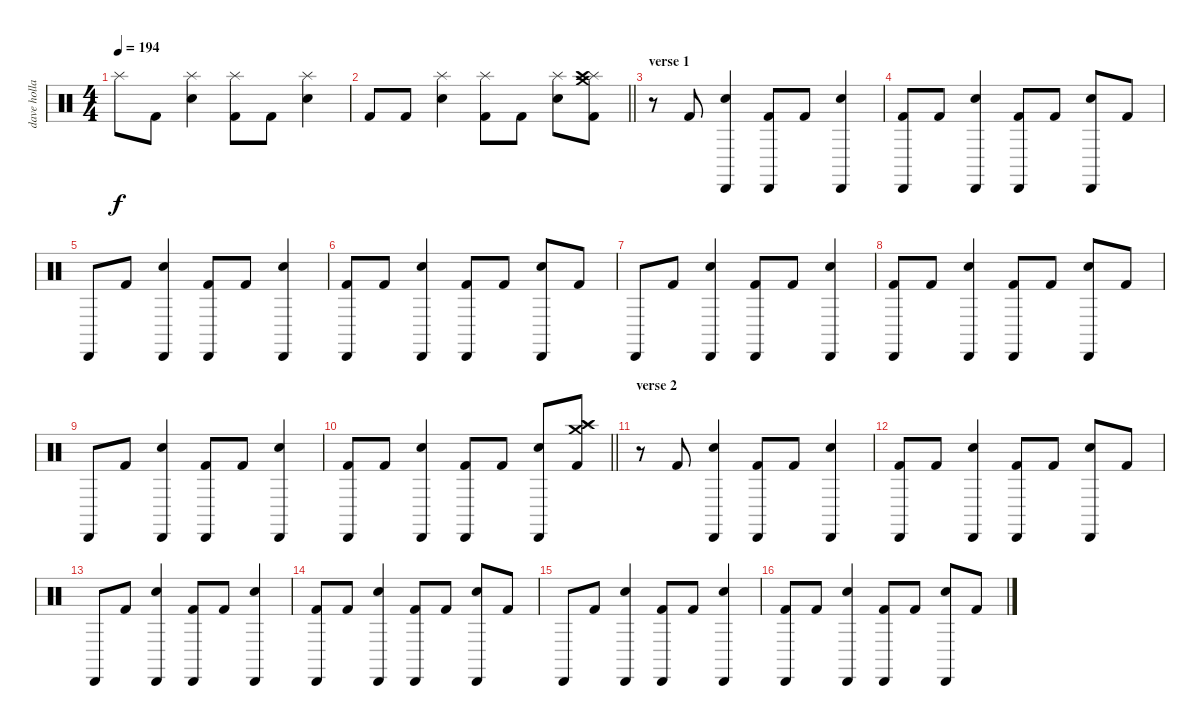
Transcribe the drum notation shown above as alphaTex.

\track ("dave holland" "dave holla") {instrument percussion}
\staff {score}
\articulation defaults
\ts (4 4)
\tempo 194
\clef neutral
\ks c "Splash (hit)".8{dy f} "Kick (hit) 2".8
("Splash (hit)" "Electric Snare (hit)").4 ("Splash (hit)" "Kick (hit) 2").8 "Kick (hit) 2".8 ("Splash (hit)" "Electric Snare (hit)").4 |
\barLineRight lightlight "Kick (hit) 2".8 "Kick (hit) 2".8
("Splash (hit)" "Electric Snare (hit)").4 ("Splash (hit)" "Kick (hit) 2").8 "Kick (hit) 2".8 ("Splash (hit)" "Electric Snare (hit)").8 ("Crash medium (hit)" "Splash (hit)" "Crash high (hit)" "Kick (hit) 2").8 |
\section ("" "verse 1")
r.8 "Kick (hit) 2".8 ("Cabasa (hit)" "Electric Snare (hit)").4 ("Cabasa (hit)" "Kick (hit) 2").8 "Kick (hit) 2".8 ("Cabasa (hit)" "Electric Snare (hit)").4 |
("Cabasa (hit)" "Kick (hit) 2").8 "Kick (hit) 2".8 ("Cabasa (hit)" "Electric Snare (hit)").4 ("Cabasa (hit)" "Kick (hit) 2").8 "Kick (hit) 2".8 ("Cabasa (hit)" "Electric Snare (hit)").8 "Kick (hit) 2".8 |
"Cabasa (hit)".8 "Kick (hit) 2".8 ("Cabasa (hit)" "Electric Snare (hit)").4 ("Cabasa (hit)" "Kick (hit) 2").8 "Kick (hit) 2".8 ("Cabasa (hit)" "Electric Snare (hit)").4 |
("Cabasa (hit)" "Kick (hit) 2").8 "Kick (hit) 2".8 ("Cabasa (hit)" "Electric Snare (hit)").4 ("Cabasa (hit)" "Kick (hit) 2").8 "Kick (hit) 2".8 ("Cabasa (hit)" "Electric Snare (hit)").8 "Kick (hit) 2".8 |
"Cabasa (hit)".8 "Kick (hit) 2".8 ("Cabasa (hit)" "Electric Snare (hit)").4 ("Cabasa (hit)" "Kick (hit) 2").8 "Kick (hit) 2".8 ("Cabasa (hit)" "Electric Snare (hit)").4 |
("Cabasa (hit)" "Kick (hit) 2").8 "Kick (hit) 2".8 ("Cabasa (hit)" "Electric Snare (hit)").4 ("Cabasa (hit)" "Kick (hit) 2").8 "Kick (hit) 2".8 ("Cabasa (hit)" "Electric Snare (hit)").8 "Kick (hit) 2".8 |
"Cabasa (hit)".8 "Kick (hit) 2".8 ("Cabasa (hit)" "Electric Snare (hit)").4 ("Cabasa (hit)" "Kick (hit) 2").8 "Kick (hit) 2".8 ("Cabasa (hit)" "Electric Snare (hit)").4 |
\barLineRight lightlight
("Cabasa (hit)" "Kick (hit) 2").8 "Kick (hit) 2".8 ("Cabasa (hit)" "Electric Snare (hit)").4 ("Cabasa (hit)" "Kick (hit) 2").8 "Kick (hit) 2".8 ("Cabasa (hit)" "Electric Snare (hit)").8 ("Crash medium (hit)" "Splash (hit)" "Crash high (hit)" "Kick (hit) 2").8 |
\section ("" "verse 2")
r.8 "Kick (hit) 2".8 ("Cabasa (hit)" "Electric Snare (hit)").4 ("Cabasa (hit)" "Kick (hit) 2").8 "Kick (hit) 2".8 ("Cabasa (hit)" "Electric Snare (hit)").4 |
("Cabasa (hit)" "Kick (hit) 2").8 "Kick (hit) 2".8 ("Cabasa (hit)" "Electric Snare (hit)").4 ("Cabasa (hit)" "Kick (hit) 2").8 "Kick (hit) 2".8 ("Cabasa (hit)" "Electric Snare (hit)").8 "Kick (hit) 2".8 |
"Cabasa (hit)".8 "Kick (hit) 2".8 ("Cabasa (hit)" "Electric Snare (hit)").4 ("Cabasa (hit)" "Kick (hit) 2").8 "Kick (hit) 2".8 ("Cabasa (hit)" "Electric Snare (hit)").4 |
("Cabasa (hit)" "Kick (hit) 2").8 "Kick (hit) 2".8 ("Cabasa (hit)" "Electric Snare (hit)").4 ("Cabasa (hit)" "Kick (hit) 2").8 "Kick (hit) 2".8 ("Cabasa (hit)" "Electric Snare (hit)").8 "Kick (hit) 2".8 |
"Cabasa (hit)".8 "Kick (hit) 2".8 ("Cabasa (hit)" "Electric Snare (hit)").4 ("Cabasa (hit)" "Kick (hit) 2").8 "Kick (hit) 2".8 ("Cabasa (hit)" "Electric Snare (hit)").4 |
("Cabasa (hit)" "Kick (hit) 2").8 "Kick (hit) 2".8 ("Cabasa (hit)" "Electric Snare (hit)").4 ("Cabasa (hit)" "Kick (hit) 2").8 "Kick (hit) 2".8 ("Cabasa (hit)" "Electric Snare (hit)").8 "Kick (hit) 2".8
